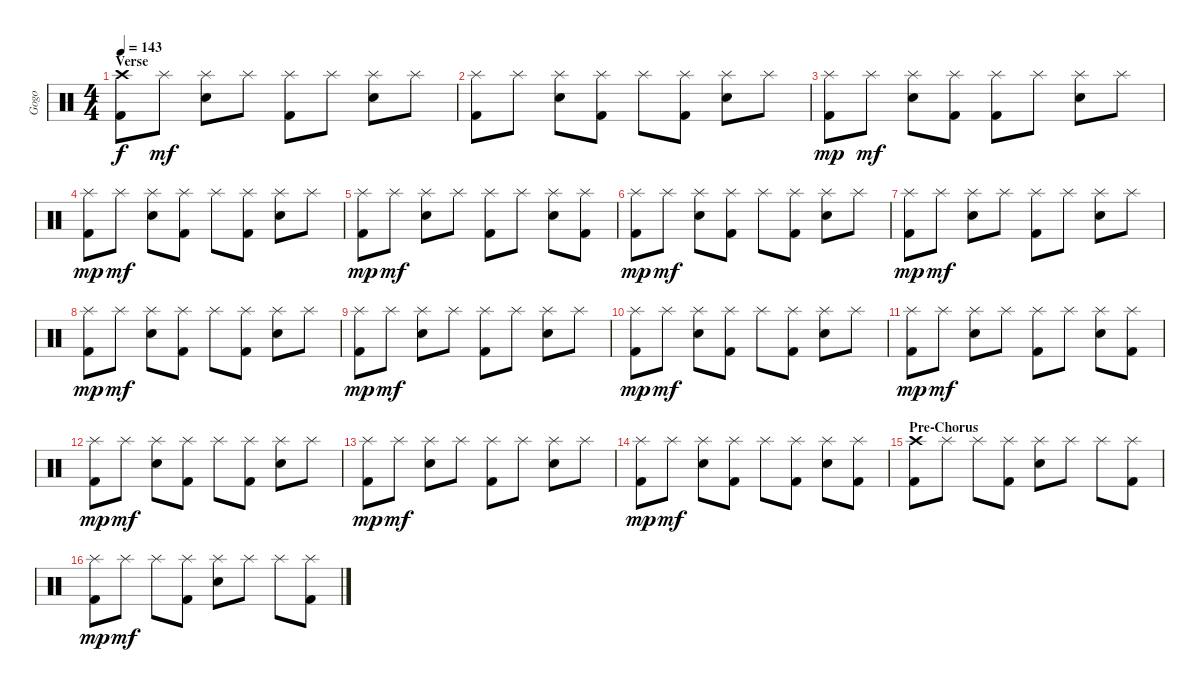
\track ("Gogo" "Gogo") {instrument percussion}
\staff {score}
\articulation defaults
\ts (4 4)
\section ("" "Verse")
\tempo 143
\clef neutral
\ks c
("Crash high (hit)" "Kick (hit) 2").8{dy f} "Splash (hit)".8{dy mf} ("Splash (hit)" "Electric Snare (hit)").8 "Splash (hit)".8 ("Splash (hit)" "Kick (hit) 2").8 "Splash (hit)".8 ("Splash (hit)" "Electric Snare (hit)").8 "Splash (hit)".8 |
("Splash (hit)" "Kick (hit) 2").8 "Splash (hit)".8 ("Splash (hit)" "Electric Snare (hit)").8 ("Splash (hit)" "Kick (hit) 2").8 "Splash (hit)".8 ("Splash (hit)" "Kick (hit) 2").8 ("Splash (hit)" "Electric Snare (hit)").8 "Splash (hit)".8 |
("Splash (hit)" "Kick (hit) 2").8{dy mp} "Splash (hit)".8{dy mf} ("Splash (hit)" "Electric Snare (hit)").8 ("Splash (hit)" "Kick (hit) 2").8 ("Splash (hit)" "Kick (hit) 2").8 "Splash (hit)".8 ("Splash (hit)" "Electric Snare (hit)").8 "Splash (hit)".8 |
("Splash (hit)" "Kick (hit) 2").8{dy mp} "Splash (hit)".8{dy mf} ("Splash (hit)" "Electric Snare (hit)").8 ("Splash (hit)" "Kick (hit) 2").8 "Splash (hit)".8 ("Splash (hit)" "Kick (hit) 2").8 ("Splash (hit)" "Electric Snare (hit)").8 "Splash (hit)".8 |
("Splash (hit)" "Kick (hit) 2").8{dy mp} "Splash (hit)".8{dy mf} ("Splash (hit)" "Electric Snare (hit)").8 "Splash (hit)".8 ("Splash (hit)" "Kick (hit) 2").8 "Splash (hit)".8 ("Splash (hit)" "Electric Snare (hit)").8 ("Splash (hit)" "Kick (hit) 2").8 |
("Splash (hit)" "Kick (hit) 2").8{dy mp} "Splash (hit)".8{dy mf} ("Splash (hit)" "Electric Snare (hit)").8 ("Splash (hit)" "Kick (hit) 2").8 "Splash (hit)".8 ("Splash (hit)" "Kick (hit) 2").8 ("Splash (hit)" "Electric Snare (hit)").8 "Splash (hit)".8 |
("Splash (hit)" "Kick (hit) 2").8{dy mp} "Splash (hit)".8{dy mf} ("Splash (hit)" "Electric Snare (hit)").8 "Splash (hit)".8 ("Splash (hit)" "Kick (hit) 2").8 "Splash (hit)".8 ("Splash (hit)" "Electric Snare (hit)").8 "Splash (hit)".8 |
("Splash (hit)" "Kick (hit) 2").8{dy mp} "Splash (hit)".8{dy mf} ("Splash (hit)" "Electric Snare (hit)").8 ("Splash (hit)" "Kick (hit) 2").8 "Splash (hit)".8 ("Splash (hit)" "Kick (hit) 2").8 ("Splash (hit)" "Electric Snare (hit)").8 "Splash (hit)".8 |
("Splash (hit)" "Kick (hit) 2").8{dy mp} "Splash (hit)".8{dy mf} ("Splash (hit)" "Electric Snare (hit)").8 "Splash (hit)".8 ("Splash (hit)" "Kick (hit) 2").8 "Splash (hit)".8 ("Splash (hit)" "Electric Snare (hit)").8 "Splash (hit)".8 |
("Splash (hit)" "Kick (hit) 2").8{dy mp} "Splash (hit)".8{dy mf} ("Splash (hit)" "Electric Snare (hit)").8 ("Splash (hit)" "Kick (hit) 2").8 "Splash (hit)".8 ("Splash (hit)" "Kick (hit) 2").8 ("Splash (hit)" "Electric Snare (hit)").8 "Splash (hit)".8 |
("Splash (hit)" "Kick (hit) 2").8{dy mp} "Splash (hit)".8{dy mf} ("Splash (hit)" "Electric Snare (hit)").8 "Splash (hit)".8 ("Splash (hit)" "Kick (hit) 2").8 "Splash (hit)".8 ("Splash (hit)" "Electric Snare (hit)").8 ("Splash (hit)" "Kick (hit) 2").8 |
("Splash (hit)" "Kick (hit) 2").8{dy mp} "Splash (hit)".8{dy mf} ("Splash (hit)" "Electric Snare (hit)").8 ("Splash (hit)" "Kick (hit) 2").8 "Splash (hit)".8 ("Splash (hit)" "Kick (hit) 2").8 ("Splash (hit)" "Electric Snare (hit)").8 "Splash (hit)".8 |
("Splash (hit)" "Kick (hit) 2").8{dy mp} "Splash (hit)".8{dy mf} ("Splash (hit)" "Electric Snare (hit)").8 "Splash (hit)".8 ("Splash (hit)" "Kick (hit) 2").8 "Splash (hit)".8 ("Splash (hit)" "Electric Snare (hit)").8 "Splash (hit)".8 |
("Splash (hit)" "Kick (hit) 2").8{dy mp} "Splash (hit)".8{dy mf} ("Splash (hit)" "Electric Snare (hit)").8 ("Splash (hit)" "Kick (hit) 2").8 "Splash (hit)".8 ("Splash (hit)" "Kick (hit) 2").8 ("Splash (hit)" "Electric Snare (hit)").8 ("Splash (hit)" "Kick (hit) 2").8 |
\section ("" "Pre-Chorus")
("Crash high (hit)" "Kick (hit) 2").8 "Splash (hit)".8 "Splash (hit)".8 ("Splash (hit)" "Kick (hit) 2").8 ("Splash (hit)" "Electric Snare (hit)").8 "Splash (hit)".8 "Splash (hit)".8 ("Splash (hit)" "Kick (hit) 2").8 |
("Splash (hit)" "Kick (hit) 2").8{dy mp} "Splash (hit)".8{dy mf} "Splash (hit)".8 ("Splash (hit)" "Kick (hit) 2").8 ("Splash (hit)" "Electric Snare (hit)").8 "Splash (hit)".8 "Splash (hit)".8 ("Splash (hit)" "Kick (hit) 2").8
